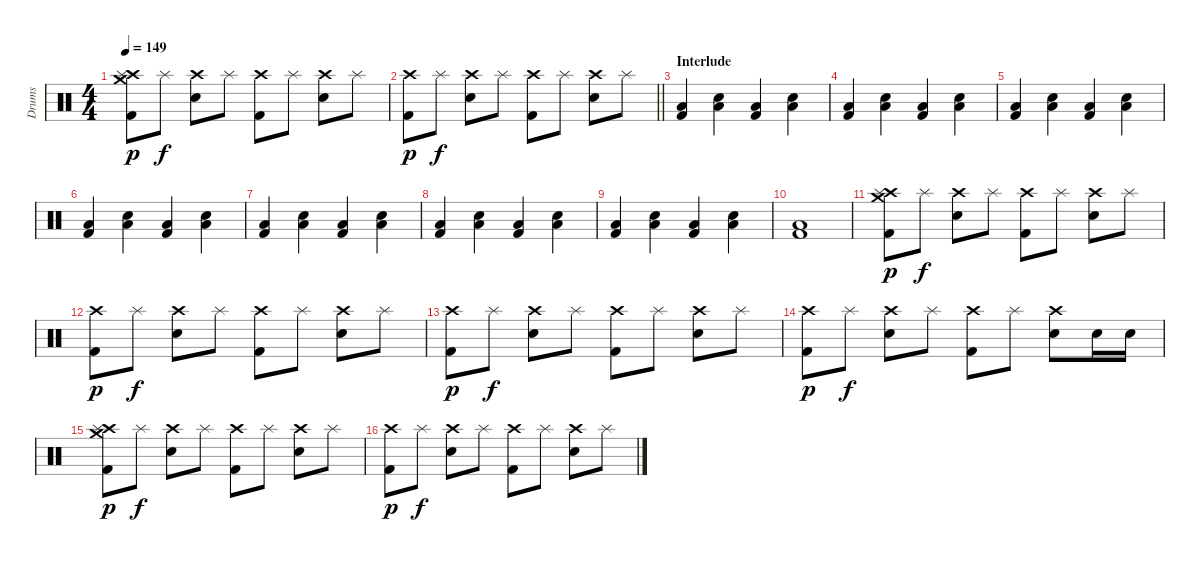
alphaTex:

\track ("Drums" "Drums") {instrument percussion}
\staff {score}
\articulation defaults
\ts (4 4)
\tempo 149
\clef neutral
\ks c
("Crash medium (hit)" "Crash high (hit)" "Splash (hit)" "Kick (hit) 2").8{dy p} "Splash (hit)".8{dy f} ("Crash high (hit)" "Snare (hit) 2").8 "Splash (hit)".8 ("Crash high (hit)" "Kick (hit) 2").8 "Splash (hit)".8 ("Crash high (hit)" "Snare (hit) 2").8 "Splash (hit)".8 |
\barLineRight lightlight
("Crash high (hit)" "Kick (hit) 2").8{dy p} "Splash (hit)".8{dy f} ("Crash high (hit)" "Snare (hit) 2").8 "Splash (hit)".8 ("Crash high (hit)" "Kick (hit) 2").8 "Splash (hit)".8 ("Crash high (hit)" "Snare (hit) 2").8 "Splash (hit)".8 |
\section ("" "Interlude")
("Low Floor Tom (hit)" "Kick (hit) 2").4 ("Low Floor Tom (hit)" "Snare (hit) 2").4 ("Low Floor Tom (hit)" "Kick (hit) 2").4 ("Low Floor Tom (hit)" "Snare (hit) 2").4 |
("Low Floor Tom (hit)" "Kick (hit) 2").4 ("Low Floor Tom (hit)" "Snare (hit) 2").4 ("Low Floor Tom (hit)" "Kick (hit) 2").4 ("Low Floor Tom (hit)" "Snare (hit) 2").4 |
("Low Floor Tom (hit)" "Kick (hit) 2").4 ("Low Floor Tom (hit)" "Snare (hit) 2").4 ("Low Floor Tom (hit)" "Kick (hit) 2").4 ("Low Floor Tom (hit)" "Snare (hit) 2").4 |
("Low Floor Tom (hit)" "Kick (hit) 2").4 ("Low Floor Tom (hit)" "Snare (hit) 2").4 ("Low Floor Tom (hit)" "Kick (hit) 2").4 ("Low Floor Tom (hit)" "Snare (hit) 2").4 |
("Low Floor Tom (hit)" "Kick (hit) 2").4 ("Low Floor Tom (hit)" "Snare (hit) 2").4 ("Low Floor Tom (hit)" "Kick (hit) 2").4 ("Low Floor Tom (hit)" "Snare (hit) 2").4 |
("Low Floor Tom (hit)" "Kick (hit) 2").4 ("Low Floor Tom (hit)" "Snare (hit) 2").4 ("Low Floor Tom (hit)" "Kick (hit) 2").4 ("Low Floor Tom (hit)" "Snare (hit) 2").4 |
("Low Floor Tom (hit)" "Kick (hit) 2").4 ("Low Floor Tom (hit)" "Snare (hit) 2").4 ("Low Floor Tom (hit)" "Kick (hit) 2").4 ("Low Floor Tom (hit)" "Snare (hit) 2").4 |
("Low Floor Tom (hit)" "Kick (hit) 2").1 |
("Crash medium (hit)" "Crash high (hit)" "Splash (hit)" "Kick (hit) 2").8{dy p} "Splash (hit)".8{dy f} ("Crash high (hit)" "Snare (hit) 2").8 "Splash (hit)".8 ("Crash high (hit)" "Kick (hit) 2").8 "Splash (hit)".8 ("Crash high (hit)" "Snare (hit) 2").8 "Splash (hit)".8 |
("Crash high (hit)" "Kick (hit) 2").8{dy p} "Splash (hit)".8{dy f} ("Crash high (hit)" "Snare (hit) 2").8 "Splash (hit)".8 ("Crash high (hit)" "Kick (hit) 2").8 "Splash (hit)".8 ("Crash high (hit)" "Snare (hit) 2").8 "Splash (hit)".8 |
("Crash high (hit)" "Kick (hit) 2").8{dy p} "Splash (hit)".8{dy f} ("Crash high (hit)" "Snare (hit) 2").8 "Splash (hit)".8 ("Crash high (hit)" "Kick (hit) 2").8 "Splash (hit)".8 ("Crash high (hit)" "Snare (hit) 2").8 "Splash (hit)".8 |
("Crash high (hit)" "Kick (hit) 2").8{dy p} "Splash (hit)".8{dy f} ("Crash high (hit)" "Snare (hit) 2").8 "Splash (hit)".8 ("Crash high (hit)" "Kick (hit) 2").8 "Splash (hit)".8 ("Crash high (hit)" "Snare (hit) 2").8 "Snare (hit) 2".16 "Snare (hit) 2".16 |
("Crash medium (hit)" "Crash high (hit)" "Splash (hit)" "Kick (hit) 2").8{dy p} "Splash (hit)".8{dy f} ("Crash high (hit)" "Snare (hit) 2").8 "Splash (hit)".8 ("Crash high (hit)" "Kick (hit) 2").8 "Splash (hit)".8 ("Crash high (hit)" "Snare (hit) 2").8 "Splash (hit)".8 |
("Crash high (hit)" "Kick (hit) 2").8{dy p} "Splash (hit)".8{dy f} ("Crash high (hit)" "Snare (hit) 2").8 "Splash (hit)".8 ("Crash high (hit)" "Kick (hit) 2").8 "Splash (hit)".8 ("Crash high (hit)" "Snare (hit) 2").8 "Splash (hit)".8
